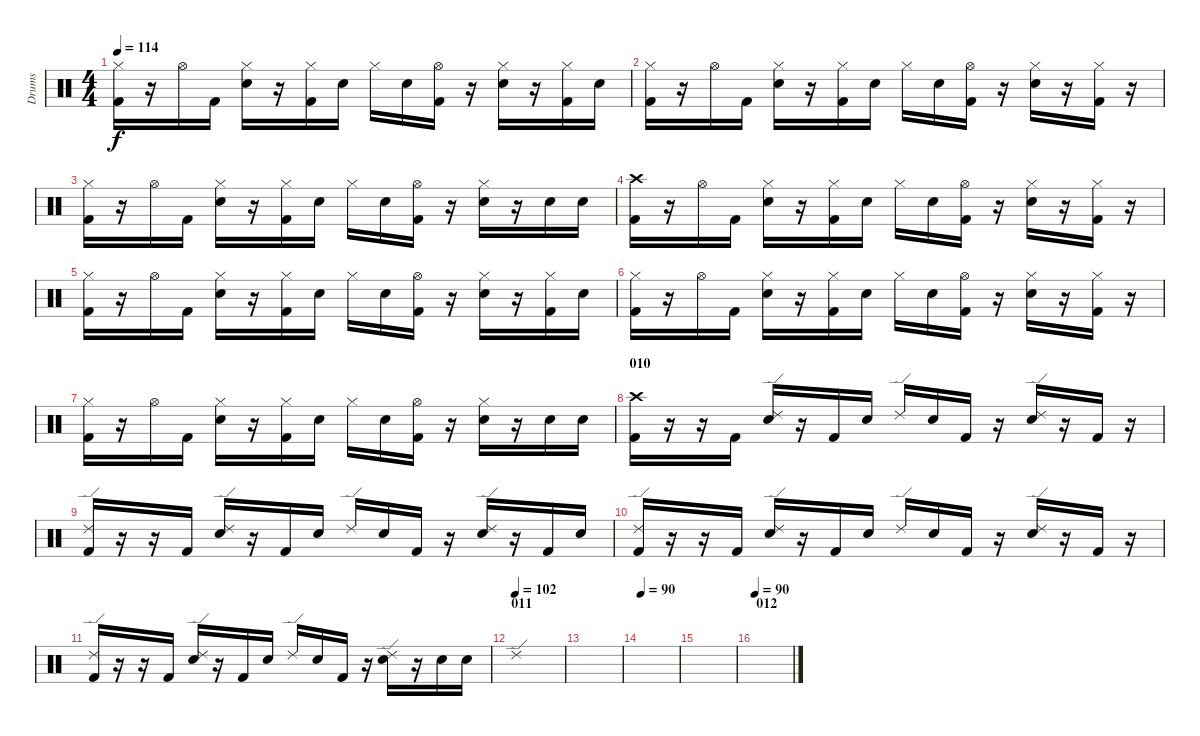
\track ("Drums" "Drums") {instrument percussion}
\staff {score}
\articulation defaults
\ts (4 4)
\tempo 114
\clef neutral
\ks c
("Kick (hit) 2" "Hi-Hat (closed)").16{dy f} r.16 "Hi-Hat (open)".16 "Kick (hit) 2".16 ("Snare (hit) 2" "Hi-Hat (closed)").16 r.16 ("Kick (hit) 2" "Hi-Hat (closed)").16 "Snare (hit) 2".16 "Hi-Hat (closed)".16 "Snare (hit) 2".16 ("Kick (hit) 2" "Hi-Hat (open)").16 r.16 ("Snare (hit) 2" "Hi-Hat (closed)").16 r.16 ("Kick (hit) 2" "Hi-Hat (closed)").16 "Snare (hit) 2".16 |
("Kick (hit) 2" "Hi-Hat (closed)").16 r.16 "Hi-Hat (open)".16 "Kick (hit) 2".16 ("Snare (hit) 2" "Hi-Hat (closed)").16 r.16 ("Kick (hit) 2" "Hi-Hat (closed)").16 "Snare (hit) 2".16 "Hi-Hat (closed)".16 "Snare (hit) 2".16 ("Kick (hit) 2" "Hi-Hat (open)").16 r.16 ("Snare (hit) 2" "Hi-Hat (closed)").16 r.16 ("Kick (hit) 2" "Hi-Hat (closed)").16 r.16 |
("Kick (hit) 2" "Hi-Hat (closed)").16 r.16 "Hi-Hat (open)".16 "Kick (hit) 2".16 ("Snare (hit) 2" "Hi-Hat (closed)").16 r.16 ("Kick (hit) 2" "Hi-Hat (closed)").16 "Snare (hit) 2".16 "Hi-Hat (closed)".16 "Snare (hit) 2".16 ("Kick (hit) 2" "Hi-Hat (open)").16 r.16 ("Snare (hit) 2" "Hi-Hat (closed)").16 r.16 "Snare (hit) 2".16 "Snare (hit) 2".16 |
("Kick (hit) 2" "Crash high (hit)").16 r.16 "Hi-Hat (open)".16 "Kick (hit) 2".16 ("Snare (hit) 2" "Hi-Hat (closed)").16 r.16 ("Kick (hit) 2" "Hi-Hat (closed)").16 "Snare (hit) 2".16 "Hi-Hat (closed)".16 "Snare (hit) 2".16 ("Kick (hit) 2" "Hi-Hat (open)").16 r.16 ("Snare (hit) 2" "Hi-Hat (closed)").16 r.16 ("Kick (hit) 2" "Hi-Hat (closed)").16 r.16 |
("Kick (hit) 2" "Hi-Hat (closed)").16 r.16 "Hi-Hat (open)".16 "Kick (hit) 2".16 ("Snare (hit) 2" "Hi-Hat (closed)").16 r.16 ("Kick (hit) 2" "Hi-Hat (closed)").16 "Snare (hit) 2".16 "Hi-Hat (closed)".16 "Snare (hit) 2".16 ("Kick (hit) 2" "Hi-Hat (open)").16 r.16 ("Snare (hit) 2" "Hi-Hat (closed)").16 r.16 ("Kick (hit) 2" "Hi-Hat (closed)").16 "Snare (hit) 2".16 |
("Kick (hit) 2" "Hi-Hat (closed)").16 r.16 "Hi-Hat (open)".16 "Kick (hit) 2".16 ("Snare (hit) 2" "Hi-Hat (closed)").16 r.16 ("Kick (hit) 2" "Hi-Hat (closed)").16 "Snare (hit) 2".16 "Hi-Hat (closed)".16 "Snare (hit) 2".16 ("Kick (hit) 2" "Hi-Hat (open)").16 r.16 ("Snare (hit) 2" "Hi-Hat (closed)").16 r.16 ("Kick (hit) 2" "Hi-Hat (closed)").16 r.16 |
("Kick (hit) 2" "Hi-Hat (closed)").16 r.16 "Hi-Hat (open)".16 "Kick (hit) 2".16 ("Snare (hit) 2" "Hi-Hat (closed)").16 r.16 ("Kick (hit) 2" "Hi-Hat (closed)").16 "Snare (hit) 2".16 "Hi-Hat (closed)".16 "Snare (hit) 2".16 ("Kick (hit) 2" "Hi-Hat (open)").16 r.16 ("Snare (hit) 2" "Hi-Hat (closed)").16 r.16 "Snare (hit) 2".16 "Snare (hit) 2".16 |
\section ("" "010")
("Kick (hit) 2" "Crash high (hit)").16 r.16 r.16 "Kick (hit) 2".16 ("Electric Snare (hit)" "Ride (edge) 2").16 r.16 "Kick (hit) 2".16 "Electric Snare (hit)".16 "Ride (edge) 2".16 "Electric Snare (hit)".16 "Kick (hit) 2".16 r.16 ("Electric Snare (hit)" "Ride (edge) 2").16 r.16 "Kick (hit) 2".16 r.16 |
("Kick (hit) 2" "Ride (edge) 2").16 r.16 r.16 "Kick (hit) 2".16 ("Electric Snare (hit)" "Ride (edge) 2").16 r.16 "Kick (hit) 2".16 "Electric Snare (hit)".16 "Ride (edge) 2".16 "Electric Snare (hit)".16 "Kick (hit) 2".16 r.16 ("Electric Snare (hit)" "Ride (edge) 2").16 r.16 "Kick (hit) 2".16 "Electric Snare (hit)".16 |
("Kick (hit) 2" "Ride (edge) 2").16 r.16 r.16 "Kick (hit) 2".16 ("Electric Snare (hit)" "Ride (edge) 2").16 r.16 "Kick (hit) 2".16 "Electric Snare (hit)".16 "Ride (edge) 2".16 "Electric Snare (hit)".16 "Kick (hit) 2".16 r.16 ("Electric Snare (hit)" "Ride (edge) 2").16 r.16 "Kick (hit) 2".16 r.16 |
("Kick (hit) 2" "Ride (edge) 2").16 r.16 r.16 "Kick (hit) 2".16 ("Electric Snare (hit)" "Ride (edge) 2").16 r.16 "Kick (hit) 2".16 "Electric Snare (hit)".16 "Ride (edge) 2".16 "Electric Snare (hit)".16 "Kick (hit) 2".16 r.16 ("Electric Snare (hit)" "Ride (edge) 2").16 r.16 "Electric Snare (hit)".16 "Electric Snare (hit)".16 |
\section ("" "011")
\tempo (102)
"Ride (edge) 2".1 |
|
\tempo 90
|
|
\section ("" "012")
\tempo 90
